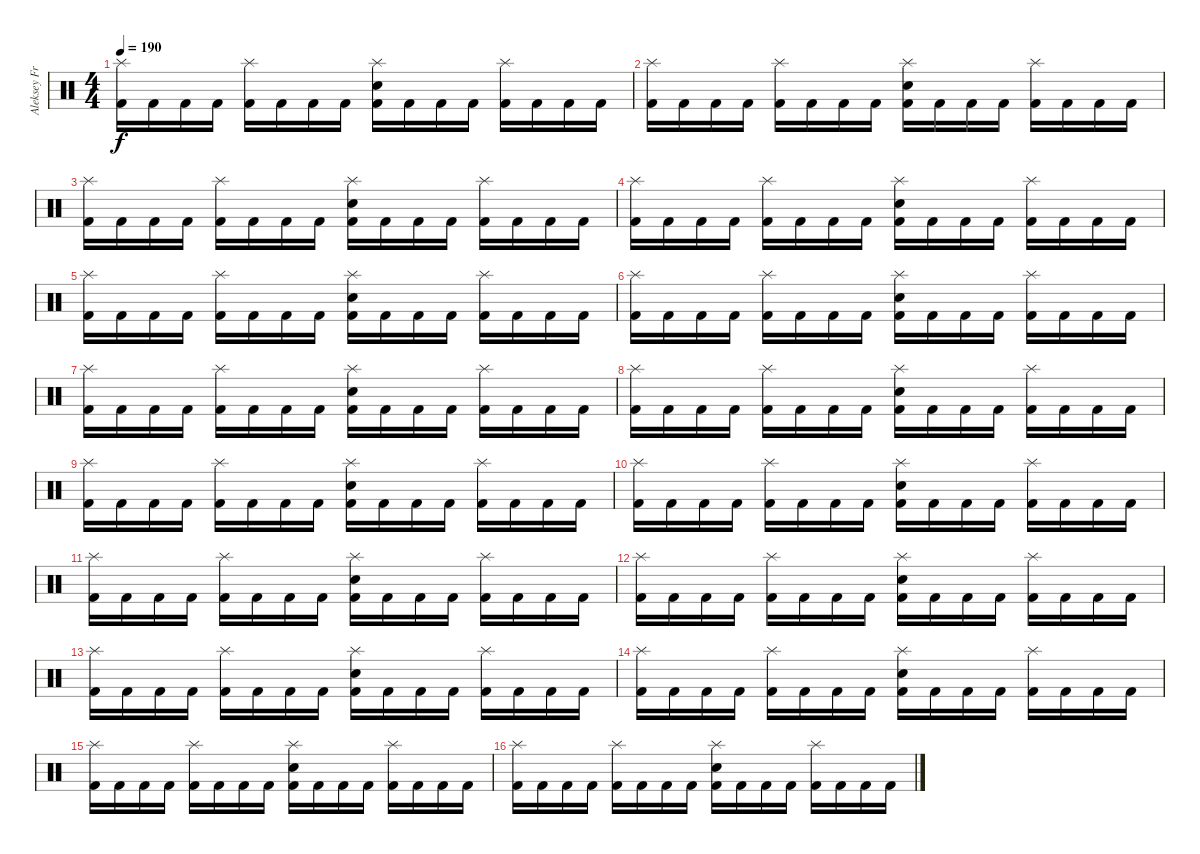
\track ("Aleksey Frolov" "Aleksey Fr") {instrument percussion}
\staff {score}
\articulation defaults
\ts (4 4)
\tempo 190
\clef neutral
\ks c
("Splash (hit)" "Kick (hit) 2").16{dy f} "Kick (hit) 2".16 "Kick (hit) 2".16 "Kick (hit) 2".16 ("Splash (hit)" "Kick (hit) 2").16 "Kick (hit) 2".16 "Kick (hit) 2".16 "Kick (hit) 2".16 ("Splash (hit)" "Electric Snare (hit)" "Kick (hit) 2").16 "Kick (hit) 2".16 "Kick (hit) 2".16 "Kick (hit) 2".16 ("Splash (hit)" "Kick (hit) 2").16 "Kick (hit) 2".16 "Kick (hit) 2".16 "Kick (hit) 2".16 |
("Splash (hit)" "Kick (hit) 2").16 "Kick (hit) 2".16 "Kick (hit) 2".16 "Kick (hit) 2".16 ("Splash (hit)" "Kick (hit) 2").16 "Kick (hit) 2".16 "Kick (hit) 2".16 "Kick (hit) 2".16 ("Splash (hit)" "Electric Snare (hit)" "Kick (hit) 2").16 "Kick (hit) 2".16 "Kick (hit) 2".16 "Kick (hit) 2".16 ("Splash (hit)" "Kick (hit) 2").16 "Kick (hit) 2".16 "Kick (hit) 2".16 "Kick (hit) 2".16 |
("Splash (hit)" "Kick (hit) 2").16 "Kick (hit) 2".16 "Kick (hit) 2".16 "Kick (hit) 2".16 ("Splash (hit)" "Kick (hit) 2").16 "Kick (hit) 2".16 "Kick (hit) 2".16 "Kick (hit) 2".16 ("Splash (hit)" "Electric Snare (hit)" "Kick (hit) 2").16 "Kick (hit) 2".16 "Kick (hit) 2".16 "Kick (hit) 2".16 ("Splash (hit)" "Kick (hit) 2").16 "Kick (hit) 2".16 "Kick (hit) 2".16 "Kick (hit) 2".16 |
("Splash (hit)" "Kick (hit) 2").16 "Kick (hit) 2".16 "Kick (hit) 2".16 "Kick (hit) 2".16 ("Splash (hit)" "Kick (hit) 2").16 "Kick (hit) 2".16 "Kick (hit) 2".16 "Kick (hit) 2".16 ("Splash (hit)" "Electric Snare (hit)" "Kick (hit) 2").16 "Kick (hit) 2".16 "Kick (hit) 2".16 "Kick (hit) 2".16 ("Splash (hit)" "Kick (hit) 2").16 "Kick (hit) 2".16 "Kick (hit) 2".16 "Kick (hit) 2".16 |
("Splash (hit)" "Kick (hit) 2").16 "Kick (hit) 2".16 "Kick (hit) 2".16 "Kick (hit) 2".16 ("Splash (hit)" "Kick (hit) 2").16 "Kick (hit) 2".16 "Kick (hit) 2".16 "Kick (hit) 2".16 ("Splash (hit)" "Electric Snare (hit)" "Kick (hit) 2").16 "Kick (hit) 2".16 "Kick (hit) 2".16 "Kick (hit) 2".16 ("Splash (hit)" "Kick (hit) 2").16 "Kick (hit) 2".16 "Kick (hit) 2".16 "Kick (hit) 2".16 |
("Splash (hit)" "Kick (hit) 2").16 "Kick (hit) 2".16 "Kick (hit) 2".16 "Kick (hit) 2".16 ("Splash (hit)" "Kick (hit) 2").16 "Kick (hit) 2".16 "Kick (hit) 2".16 "Kick (hit) 2".16 ("Splash (hit)" "Electric Snare (hit)" "Kick (hit) 2").16 "Kick (hit) 2".16 "Kick (hit) 2".16 "Kick (hit) 2".16 ("Splash (hit)" "Kick (hit) 2").16 "Kick (hit) 2".16 "Kick (hit) 2".16 "Kick (hit) 2".16 |
("Splash (hit)" "Kick (hit) 2").16 "Kick (hit) 2".16 "Kick (hit) 2".16 "Kick (hit) 2".16 ("Splash (hit)" "Kick (hit) 2").16 "Kick (hit) 2".16 "Kick (hit) 2".16 "Kick (hit) 2".16 ("Splash (hit)" "Electric Snare (hit)" "Kick (hit) 2").16 "Kick (hit) 2".16 "Kick (hit) 2".16 "Kick (hit) 2".16 ("Splash (hit)" "Kick (hit) 2").16 "Kick (hit) 2".16 "Kick (hit) 2".16 "Kick (hit) 2".16 |
("Splash (hit)" "Kick (hit) 2").16 "Kick (hit) 2".16 "Kick (hit) 2".16 "Kick (hit) 2".16 ("Splash (hit)" "Kick (hit) 2").16 "Kick (hit) 2".16 "Kick (hit) 2".16 "Kick (hit) 2".16 ("Splash (hit)" "Electric Snare (hit)" "Kick (hit) 2").16 "Kick (hit) 2".16 "Kick (hit) 2".16 "Kick (hit) 2".16 ("Splash (hit)" "Kick (hit) 2").16 "Kick (hit) 2".16 "Kick (hit) 2".16 "Kick (hit) 2".16 |
("Splash (hit)" "Kick (hit) 2").16 "Kick (hit) 2".16 "Kick (hit) 2".16 "Kick (hit) 2".16 ("Splash (hit)" "Kick (hit) 2").16 "Kick (hit) 2".16 "Kick (hit) 2".16 "Kick (hit) 2".16 ("Splash (hit)" "Electric Snare (hit)" "Kick (hit) 2").16 "Kick (hit) 2".16 "Kick (hit) 2".16 "Kick (hit) 2".16 ("Splash (hit)" "Kick (hit) 2").16 "Kick (hit) 2".16 "Kick (hit) 2".16 "Kick (hit) 2".16 |
("Splash (hit)" "Kick (hit) 2").16 "Kick (hit) 2".16 "Kick (hit) 2".16 "Kick (hit) 2".16 ("Splash (hit)" "Kick (hit) 2").16 "Kick (hit) 2".16 "Kick (hit) 2".16 "Kick (hit) 2".16 ("Splash (hit)" "Electric Snare (hit)" "Kick (hit) 2").16 "Kick (hit) 2".16 "Kick (hit) 2".16 "Kick (hit) 2".16 ("Splash (hit)" "Kick (hit) 2").16 "Kick (hit) 2".16 "Kick (hit) 2".16 "Kick (hit) 2".16 |
("Splash (hit)" "Kick (hit) 2").16 "Kick (hit) 2".16 "Kick (hit) 2".16 "Kick (hit) 2".16 ("Splash (hit)" "Kick (hit) 2").16 "Kick (hit) 2".16 "Kick (hit) 2".16 "Kick (hit) 2".16 ("Splash (hit)" "Electric Snare (hit)" "Kick (hit) 2").16 "Kick (hit) 2".16 "Kick (hit) 2".16 "Kick (hit) 2".16 ("Splash (hit)" "Kick (hit) 2").16 "Kick (hit) 2".16 "Kick (hit) 2".16 "Kick (hit) 2".16 |
("Splash (hit)" "Kick (hit) 2").16 "Kick (hit) 2".16 "Kick (hit) 2".16 "Kick (hit) 2".16 ("Splash (hit)" "Kick (hit) 2").16 "Kick (hit) 2".16 "Kick (hit) 2".16 "Kick (hit) 2".16 ("Splash (hit)" "Electric Snare (hit)" "Kick (hit) 2").16 "Kick (hit) 2".16 "Kick (hit) 2".16 "Kick (hit) 2".16 ("Splash (hit)" "Kick (hit) 2").16 "Kick (hit) 2".16 "Kick (hit) 2".16 "Kick (hit) 2".16 |
("Splash (hit)" "Kick (hit) 2").16 "Kick (hit) 2".16 "Kick (hit) 2".16 "Kick (hit) 2".16 ("Splash (hit)" "Kick (hit) 2").16 "Kick (hit) 2".16 "Kick (hit) 2".16 "Kick (hit) 2".16 ("Splash (hit)" "Electric Snare (hit)" "Kick (hit) 2").16 "Kick (hit) 2".16 "Kick (hit) 2".16 "Kick (hit) 2".16 ("Splash (hit)" "Kick (hit) 2").16 "Kick (hit) 2".16 "Kick (hit) 2".16 "Kick (hit) 2".16 |
("Splash (hit)" "Kick (hit) 2").16 "Kick (hit) 2".16 "Kick (hit) 2".16 "Kick (hit) 2".16 ("Splash (hit)" "Kick (hit) 2").16 "Kick (hit) 2".16 "Kick (hit) 2".16 "Kick (hit) 2".16 ("Splash (hit)" "Electric Snare (hit)" "Kick (hit) 2").16 "Kick (hit) 2".16 "Kick (hit) 2".16 "Kick (hit) 2".16 ("Splash (hit)" "Kick (hit) 2").16 "Kick (hit) 2".16 "Kick (hit) 2".16 "Kick (hit) 2".16 |
("Splash (hit)" "Kick (hit) 2").16 "Kick (hit) 2".16 "Kick (hit) 2".16 "Kick (hit) 2".16 ("Splash (hit)" "Kick (hit) 2").16 "Kick (hit) 2".16 "Kick (hit) 2".16 "Kick (hit) 2".16 ("Splash (hit)" "Electric Snare (hit)" "Kick (hit) 2").16 "Kick (hit) 2".16 "Kick (hit) 2".16 "Kick (hit) 2".16 ("Splash (hit)" "Kick (hit) 2").16 "Kick (hit) 2".16 "Kick (hit) 2".16 "Kick (hit) 2".16 |
("Splash (hit)" "Kick (hit) 2").16 "Kick (hit) 2".16 "Kick (hit) 2".16 "Kick (hit) 2".16 ("Splash (hit)" "Kick (hit) 2").16 "Kick (hit) 2".16 "Kick (hit) 2".16 "Kick (hit) 2".16 ("Splash (hit)" "Electric Snare (hit)" "Kick (hit) 2").16 "Kick (hit) 2".16 "Kick (hit) 2".16 "Kick (hit) 2".16 ("Splash (hit)" "Kick (hit) 2").16 "Kick (hit) 2".16 "Kick (hit) 2".16 "Kick (hit) 2".16
